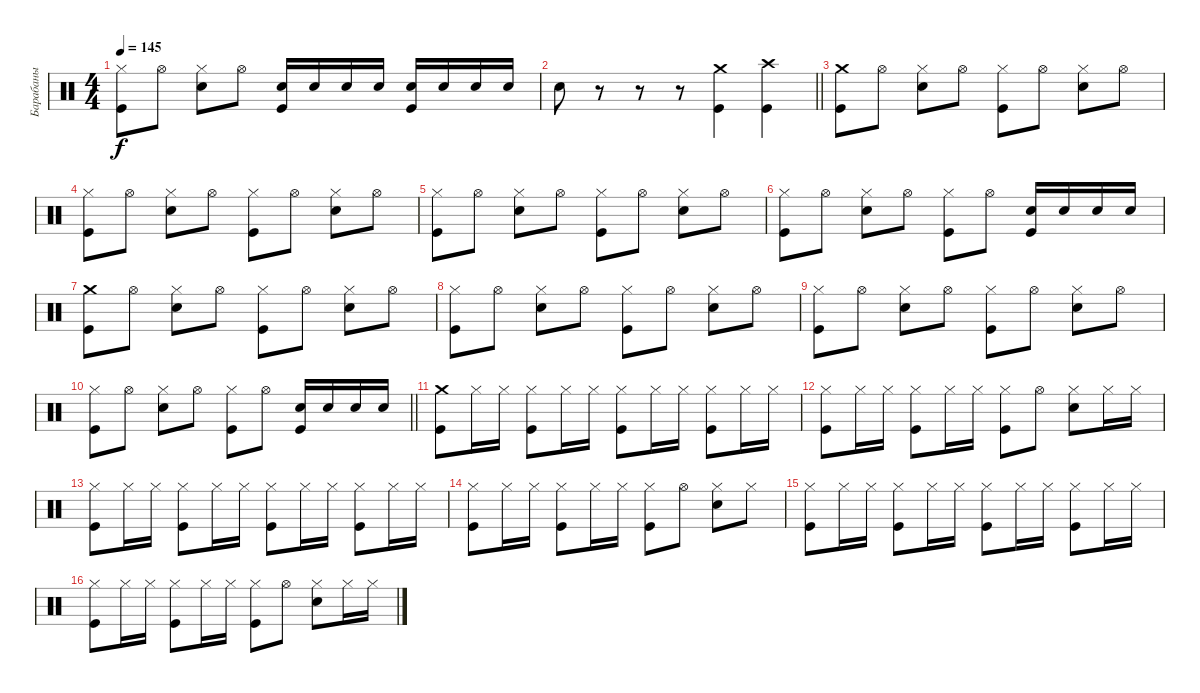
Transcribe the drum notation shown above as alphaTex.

\track ("Барабаны" "Барабаны") {instrument percussion}
\staff {score}
\articulation defaults
\ts (4 4)
\tempo 145
\clef neutral
\ks c
("Hi-Hat (closed)" "Kick (hit)").8{dy f} "Hi-Hat (open)".8 ("Hi-Hat (closed)" "Electric Snare (hit)").8 "Hi-Hat (open)".8 ("Electric Snare (hit)" "Kick (hit)").16 "Electric Snare (hit)".16 "Electric Snare (hit)".16 "Electric Snare (hit)".16 ("Electric Snare (hit)" "Kick (hit)").16 "Electric Snare (hit)".16 "Electric Snare (hit)".16 "Electric Snare (hit)".16 |
\barLineRight lightlight "Electric Snare (hit)".8
r.8 r.8 r.8 ("Crash medium (hit)" "Kick (hit)").4 ("Crash high (hit)" "Kick (hit)").4 |
("Crash medium (hit)" "Kick (hit)").8 "Hi-Hat (open)".8 ("Hi-Hat (closed)" "Electric Snare (hit)").8 "Hi-Hat (open)".8 ("Hi-Hat (closed)" "Kick (hit)").8 "Hi-Hat (open)".8 ("Hi-Hat (closed)" "Electric Snare (hit)").8 "Hi-Hat (open)".8 |
("Hi-Hat (closed)" "Kick (hit)").8 "Hi-Hat (open)".8 ("Hi-Hat (closed)" "Electric Snare (hit)").8 "Hi-Hat (open)".8 ("Hi-Hat (closed)" "Kick (hit)").8 "Hi-Hat (open)".8 ("Hi-Hat (closed)" "Electric Snare (hit)").8 "Hi-Hat (open)".8 |
("Hi-Hat (closed)" "Kick (hit)").8 "Hi-Hat (open)".8 ("Hi-Hat (closed)" "Electric Snare (hit)").8 "Hi-Hat (open)".8 ("Hi-Hat (closed)" "Kick (hit)").8 "Hi-Hat (open)".8 ("Hi-Hat (closed)" "Electric Snare (hit)").8 "Hi-Hat (open)".8 |
("Hi-Hat (closed)" "Kick (hit)").8 "Hi-Hat (open)".8 ("Hi-Hat (closed)" "Electric Snare (hit)").8 "Hi-Hat (open)".8 ("Hi-Hat (closed)" "Kick (hit)").8 "Hi-Hat (open)".8 ("Electric Snare (hit)" "Kick (hit)").16 "Electric Snare (hit)".16 "Electric Snare (hit)".16 "Electric Snare (hit)".16 |
("Crash medium (hit)" "Kick (hit)").8 "Hi-Hat (open)".8 ("Hi-Hat (closed)" "Electric Snare (hit)").8 "Hi-Hat (open)".8 ("Hi-Hat (closed)" "Kick (hit)").8 "Hi-Hat (open)".8 ("Hi-Hat (closed)" "Electric Snare (hit)").8 "Hi-Hat (open)".8 |
("Hi-Hat (closed)" "Kick (hit)").8 "Hi-Hat (open)".8 ("Hi-Hat (closed)" "Electric Snare (hit)").8 "Hi-Hat (open)".8 ("Hi-Hat (closed)" "Kick (hit)").8 "Hi-Hat (open)".8 ("Hi-Hat (closed)" "Electric Snare (hit)").8 "Hi-Hat (open)".8 |
("Hi-Hat (closed)" "Kick (hit)").8 "Hi-Hat (open)".8 ("Hi-Hat (closed)" "Electric Snare (hit)").8 "Hi-Hat (open)".8 ("Hi-Hat (closed)" "Kick (hit)").8 "Hi-Hat (open)".8 ("Hi-Hat (closed)" "Electric Snare (hit)").8 "Hi-Hat (open)".8 |
\barLineRight lightlight
("Hi-Hat (closed)" "Kick (hit)").8 "Hi-Hat (open)".8 ("Hi-Hat (closed)" "Electric Snare (hit)").8 "Hi-Hat (open)".8 ("Hi-Hat (closed)" "Kick (hit)").8 "Hi-Hat (open)".8 ("Electric Snare (hit)" "Kick (hit)").16 "Electric Snare (hit)".16 "Electric Snare (hit)".16 "Electric Snare (hit)".16 |
("Crash medium (hit)" "Kick (hit)").8 "Hi-Hat (closed)".16 "Hi-Hat (closed)".16 ("Hi-Hat (closed)" "Kick (hit)").8 "Hi-Hat (closed)".16 "Hi-Hat (closed)".16 ("Hi-Hat (closed)" "Kick (hit)").8 "Hi-Hat (closed)".16 "Hi-Hat (closed)".16 ("Hi-Hat (closed)" "Kick (hit)").8 "Hi-Hat (closed)".16 "Hi-Hat (closed)".16 |
("Hi-Hat (closed)" "Kick (hit)").8 "Hi-Hat (closed)".16 "Hi-Hat (closed)".16 ("Hi-Hat (closed)" "Kick (hit)").8 "Hi-Hat (closed)".16 "Hi-Hat (closed)".16 ("Hi-Hat (closed)" "Kick (hit)").8 "Hi-Hat (open)".8 ("Hi-Hat (closed)" "Electric Snare (hit)").8 "Hi-Hat (closed)".16 "Hi-Hat (closed)".16 |
("Hi-Hat (closed)" "Kick (hit)").8 "Hi-Hat (closed)".16 "Hi-Hat (closed)".16 ("Hi-Hat (closed)" "Kick (hit)").8 "Hi-Hat (closed)".16 "Hi-Hat (closed)".16 ("Hi-Hat (closed)" "Kick (hit)").8 "Hi-Hat (closed)".16 "Hi-Hat (closed)".16 ("Hi-Hat (closed)" "Kick (hit)").8 "Hi-Hat (closed)".16 "Hi-Hat (closed)".16 |
("Hi-Hat (closed)" "Kick (hit)").8 "Hi-Hat (closed)".16 "Hi-Hat (closed)".16 ("Hi-Hat (closed)" "Kick (hit)").8 "Hi-Hat (closed)".16 "Hi-Hat (closed)".16 ("Hi-Hat (closed)" "Kick (hit)").8 "Hi-Hat (open)".8 ("Hi-Hat (closed)" "Electric Snare (hit)").8 "Hi-Hat (closed)".8 |
("Hi-Hat (closed)" "Kick (hit)").8 "Hi-Hat (closed)".16 "Hi-Hat (closed)".16 ("Hi-Hat (closed)" "Kick (hit)").8 "Hi-Hat (closed)".16 "Hi-Hat (closed)".16 ("Hi-Hat (closed)" "Kick (hit)").8 "Hi-Hat (closed)".16 "Hi-Hat (closed)".16 ("Hi-Hat (closed)" "Kick (hit)").8 "Hi-Hat (closed)".16 "Hi-Hat (closed)".16 |
("Hi-Hat (closed)" "Kick (hit)").8 "Hi-Hat (closed)".16 "Hi-Hat (closed)".16 ("Hi-Hat (closed)" "Kick (hit)").8 "Hi-Hat (closed)".16 "Hi-Hat (closed)".16 ("Hi-Hat (closed)" "Kick (hit)").8 "Hi-Hat (open)".8 ("Hi-Hat (closed)" "Electric Snare (hit)").8 "Hi-Hat (closed)".16 "Hi-Hat (closed)".16
